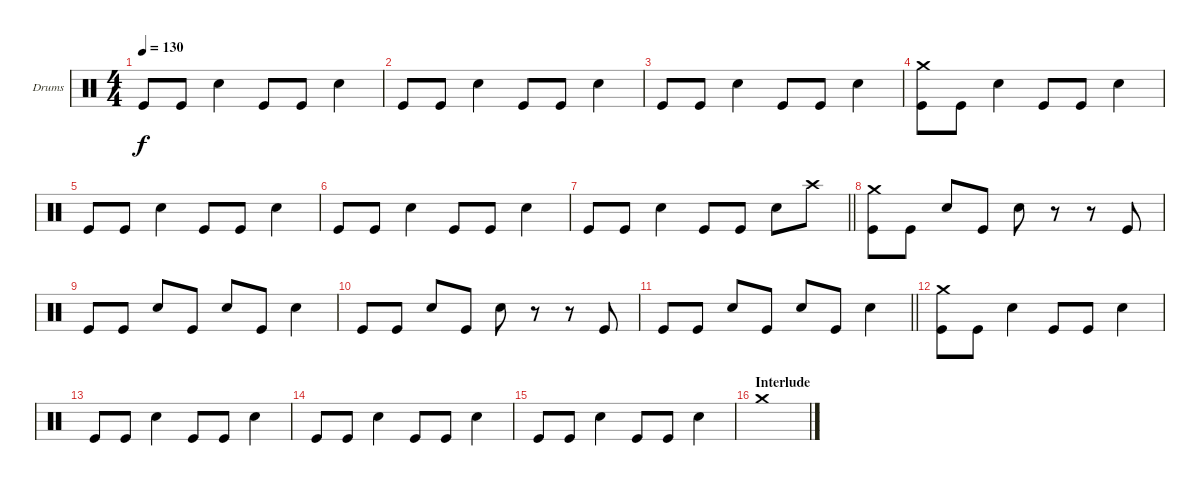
\defaultSystemsLayout 4
\bracketExtendMode groupsimilarinstruments
\firstSystemTrackNameOrientation horizontal
\otherSystemsTrackNameOrientation horizontal
\track ("Drums" "Drums") {instrument percussion}
\staff {score}
\articulation defaults
\ts (4 4)
\tempo 130
\clef neutral
\ks aminor "Kick (hit)".8{dy f} "Kick (hit)".8 "Snare (hit) 2".4 "Kick (hit)".8 "Kick (hit)".8 "Snare (hit) 2".4
|
"Kick (hit)".8 "Kick (hit)".8 "Snare (hit) 2".4 "Kick (hit)".8 "Kick (hit)".8 "Snare (hit) 2".4 |
"Kick (hit)".8 "Kick (hit)".8 "Snare (hit) 2".4 "Kick (hit)".8 "Kick (hit)".8 "Snare (hit) 2".4 |
("Kick (hit)" "Crash medium (hit)").8 "Kick (hit)".8 "Snare (hit) 2".4 "Kick (hit)".8 "Kick (hit)".8 "Snare (hit) 2".4 |
"Kick (hit)".8 "Kick (hit)".8 "Snare (hit) 2".4 "Kick (hit)".8 "Kick (hit)".8 "Snare (hit) 2".4 |
"Kick (hit)".8 "Kick (hit)".8 "Snare (hit) 2".4 "Kick (hit)".8 "Kick (hit)".8 "Snare (hit) 2".4 |
\barLineRight lightlight "Kick (hit)".8 "Kick (hit)".8 "Snare (hit) 2".4 "Kick (hit)".8 "Kick (hit)".8 "Snare (hit) 2".8 "Crash high (hit)".8
|
("Kick (hit)" "Crash medium (hit)").8 "Kick (hit)".8 "Snare (hit) 2".8 "Kick (hit)".8 "Snare (hit) 2".8 r.8 r.8 "Kick (hit)".8 |
"Kick (hit)".8 "Kick (hit)".8 "Snare (hit) 2".8 "Kick (hit)".8 "Snare (hit) 2".8 "Kick (hit)".8 "Snare (hit) 2".4 |
"Kick (hit)".8 "Kick (hit)".8 "Snare (hit) 2".8 "Kick (hit)".8 "Snare (hit) 2".8 r.8 r.8 "Kick (hit)".8 |
\barLineRight lightlight "Kick (hit)".8 "Kick (hit)".8 "Snare (hit) 2".8 "Kick (hit)".8 "Snare (hit) 2".8 "Kick (hit)".8 "Snare (hit) 2".4
|
("Kick (hit)" "Crash medium (hit)").8 "Kick (hit)".8 "Snare (hit) 2".4 "Kick (hit)".8 "Kick (hit)".8 "Snare (hit) 2".4 |
"Kick (hit)".8 "Kick (hit)".8 "Snare (hit) 2".4 "Kick (hit)".8 "Kick (hit)".8 "Snare (hit) 2".4 |
"Kick (hit)".8 "Kick (hit)".8 "Snare (hit) 2".4 "Kick (hit)".8 "Kick (hit)".8 "Snare (hit) 2".4 |
"Kick (hit)".8 "Kick (hit)".8 "Snare (hit) 2".4 "Kick (hit)".8 "Kick (hit)".8 "Snare (hit) 2".4 |
\section ("" "Interlude")
"Crash medium (hit)".1
